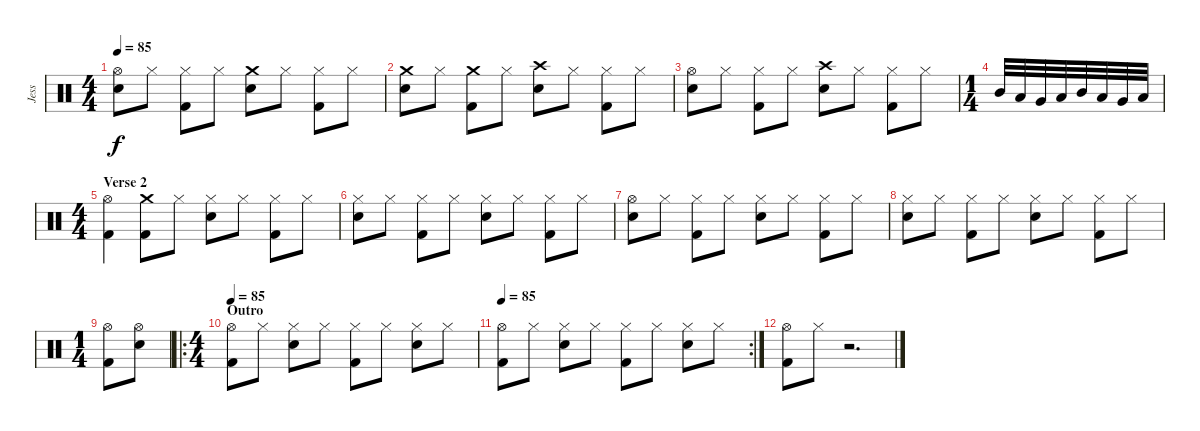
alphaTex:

\track ("Jess" "Jess") {instrument percussion}
\staff {score}
\articulation defaults
\ts (4 4)
\tempo 85
\clef neutral
\ks c
("Hi-Hat (open)" "Snare (hit) 2").8{dy f} "Hi-Hat (closed)".8 ("Hi-Hat (closed)" "Kick (hit) 2").8 "Hi-Hat (closed)".8 ("Crash medium (hit)" "Snare (hit) 2").8 "Hi-Hat (closed)".8 ("Hi-Hat (closed)" "Kick (hit) 2").8 "Hi-Hat (closed)".8 |
("Crash medium (hit)" "Snare (hit) 2").8 "Hi-Hat (closed)".8 ("Crash medium (hit)" "Kick (hit) 2").8 "Hi-Hat (closed)".8 ("Crash high (hit)" "Snare (hit) 2").8 "Hi-Hat (closed)".8 ("Hi-Hat (closed)" "Kick (hit) 2").8 "Hi-Hat (closed)".8 |
("Hi-Hat (open)" "Snare (hit) 2").8 "Hi-Hat (closed)".8 ("Hi-Hat (closed)" "Kick (hit) 2").8 "Hi-Hat (closed)".8 ("Crash high (hit)" "Snare (hit) 2").8 "Hi-Hat (closed)".8 ("Hi-Hat (closed)" "Kick (hit) 2").8 "Hi-Hat (closed)".8 |
\ts (1 4)
"Mid Tom (hit)".32 "Low Tom (hit)".32 "Very Low Tom (hit)".32 "Low Tom (hit)".32 "Mid Tom (hit)".32 "Low Tom (hit)".32 "Very Low Tom (hit)".32 "Low Tom (hit)".32 |
\ts (4 4)
\section ("" "Verse 2")
("Hi-Hat (open)" "Kick (hit) 2").4 ("Crash medium (hit)" "Kick (hit) 2").8 "Hi-Hat (closed)".8 ("Hi-Hat (closed)" "Snare (hit) 2").8 "Hi-Hat (closed)".8 ("Hi-Hat (closed)" "Kick (hit) 2").8 "Hi-Hat (closed)".8 |
("Hi-Hat (closed)" "Snare (hit) 2").8 "Hi-Hat (closed)".8 ("Hi-Hat (closed)" "Kick (hit) 2").8 "Hi-Hat (closed)".8 ("Hi-Hat (closed)" "Snare (hit) 2").8 "Hi-Hat (closed)".8 ("Hi-Hat (closed)" "Kick (hit) 2").8 "Hi-Hat (closed)".8 |
("Hi-Hat (open)" "Snare (hit) 2").8 "Hi-Hat (closed)".8 ("Hi-Hat (closed)" "Kick (hit) 2").8 "Hi-Hat (closed)".8 ("Hi-Hat (closed)" "Snare (hit) 2").8 "Hi-Hat (closed)".8 ("Hi-Hat (closed)" "Kick (hit) 2").8 "Hi-Hat (closed)".8 |
("Hi-Hat (closed)" "Snare (hit) 2").8 "Hi-Hat (closed)".8 ("Hi-Hat (closed)" "Kick (hit) 2").8 "Hi-Hat (closed)".8 ("Hi-Hat (closed)" "Snare (hit) 2").8 "Hi-Hat (closed)".8 ("Hi-Hat (closed)" "Kick (hit) 2").8 "Hi-Hat (closed)".8 |
\ts (1 4)
("Hi-Hat (open)" "Kick (hit) 2").8 ("Hi-Hat (open)" "Snare (hit) 2").8 |
\ro
\ts (4 4)
\section ("" "Outro")
\tempo 80
\tempo 85
("Hi-Hat (open)" "Kick (hit) 2").8 "Hi-Hat (closed)".8 ("Hi-Hat (closed)" "Snare (hit) 2").8 "Hi-Hat (closed)".8 ("Hi-Hat (closed)" "Kick (hit) 2").8 "Hi-Hat (closed)".8 ("Hi-Hat (closed)" "Snare (hit) 2").8 "Hi-Hat (closed)".8 |
\rc 2
\tempo 80
\tempo 85
("Hi-Hat (open)" "Kick (hit) 2").8 "Hi-Hat (closed)".8 ("Hi-Hat (closed)" "Snare (hit) 2").8 "Hi-Hat (closed)".8 ("Hi-Hat (closed)" "Kick (hit) 2").8 "Hi-Hat (closed)".8 ("Hi-Hat (closed)" "Snare (hit) 2").8 "Hi-Hat (closed)".8 |
("Hi-Hat (open)" "Kick (hit) 2").8 "Hi-Hat (closed)".8 r.2{d}
